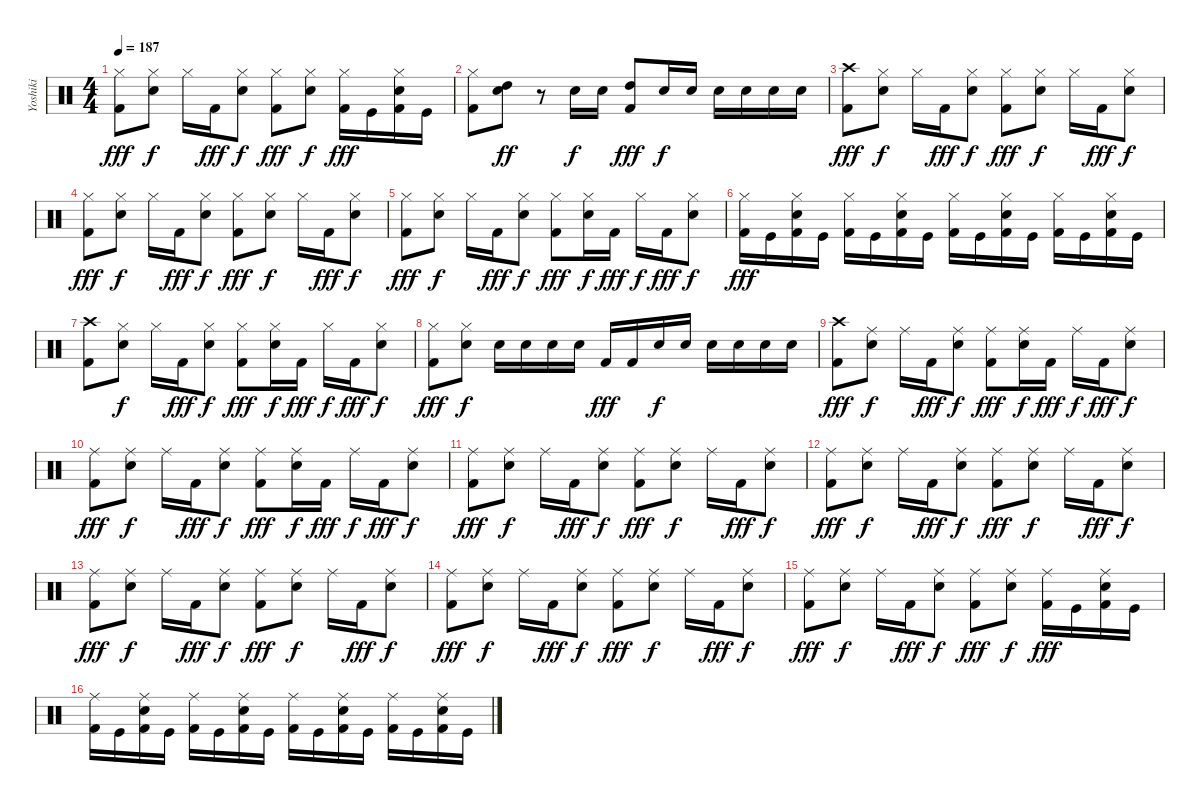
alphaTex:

\track ("Yoshiki" "Yoshiki") {instrument percussion}
\staff {score}
\articulation defaults
\ts (4 4)
\tempo 187
\clef neutral
\ks c
("Hi-Hat (closed)" "Kick (hit) 2").8{dy fff} ("Hi-Hat (closed)" "Electric Snare (hit)").8{dy f} "Hi-Hat (closed)".16 "Kick (hit) 2".16{dy fff} ("Hi-Hat (closed)" "Electric Snare (hit)").8{dy f} ("Hi-Hat (closed)" "Kick (hit) 2").8{dy fff} ("Hi-Hat (closed)" "Electric Snare (hit)").8{dy f} ("Hi-Hat (closed)" "Kick (hit) 2").16{dy fff} "Kick (hit)".16 ("Hi-Hat (closed)" "Electric Snare (hit)" "Kick (hit) 2").16 "Kick (hit)".16 |
("Hi-Hat (closed)" "Kick (hit) 2").8 ("High Tom (hit)" "Electric Snare (hit)").8{dy ff} r.8 "Electric Snare (hit)".16{dy f} "Electric Snare (hit)".16 ("High Tom (hit)" "Kick (hit) 2").8{dy fff} "Electric Snare (hit)".16{dy f} "Electric Snare (hit)".16 "Electric Snare (hit)".16 "Electric Snare (hit)".16 "Electric Snare (hit)".16 "Electric Snare (hit)".16 |
("Crash high (hit)" "Kick (hit) 2").8{dy fff} ("Hi-Hat (closed)" "Electric Snare (hit)").8{dy f} "Hi-Hat (closed)".16 "Kick (hit) 2".16{dy fff} ("Hi-Hat (closed)" "Electric Snare (hit)").8{dy f} ("Hi-Hat (closed)" "Kick (hit) 2").8{dy fff} ("Hi-Hat (closed)" "Electric Snare (hit)").8{dy f} "Hi-Hat (closed)".16 "Kick (hit) 2".16{dy fff} ("Hi-Hat (closed)" "Electric Snare (hit)").8{dy f} |
("Hi-Hat (closed)" "Kick (hit) 2").8{dy fff} ("Hi-Hat (closed)" "Electric Snare (hit)").8{dy f} "Hi-Hat (closed)".16 "Kick (hit) 2".16{dy fff} ("Hi-Hat (closed)" "Electric Snare (hit)").8{dy f} ("Hi-Hat (closed)" "Kick (hit) 2").8{dy fff} ("Hi-Hat (closed)" "Electric Snare (hit)").8{dy f} "Hi-Hat (closed)".16 "Kick (hit) 2".16{dy fff} ("Hi-Hat (closed)" "Electric Snare (hit)").8{dy f} |
("Hi-Hat (closed)" "Kick (hit) 2").8{dy fff} ("Hi-Hat (closed)" "Electric Snare (hit)").8{dy f} "Hi-Hat (closed)".16 "Kick (hit) 2".16{dy fff} ("Hi-Hat (closed)" "Electric Snare (hit)").8{dy f} ("Hi-Hat (closed)" "Kick (hit) 2").8{dy fff} ("Hi-Hat (closed)" "Electric Snare (hit)").16{dy f} "Kick (hit) 2".16{dy fff} "Hi-Hat (closed)".16{dy f} "Kick (hit) 2".16{dy fff} ("Hi-Hat (closed)" "Electric Snare (hit)").8{dy f} |
("Hi-Hat (closed)" "Kick (hit) 2").16{dy fff} "Kick (hit)".16 ("Hi-Hat (closed)" "Electric Snare (hit)" "Kick (hit) 2").16 "Kick (hit)".16 ("Hi-Hat (closed)" "Kick (hit) 2").16 "Kick (hit)".16 ("Hi-Hat (closed)" "Electric Snare (hit)" "Kick (hit) 2").16 "Kick (hit)".16 ("Hi-Hat (closed)" "Kick (hit) 2").16 "Kick (hit)".16 ("Hi-Hat (closed)" "Electric Snare (hit)" "Kick (hit) 2").16 "Kick (hit)".16 ("Hi-Hat (closed)" "Kick (hit) 2").16 "Kick (hit)".16 ("Hi-Hat (closed)" "Electric Snare (hit)" "Kick (hit) 2").16 "Kick (hit)".16 |
("Crash high (hit)" "Kick (hit) 2").8 ("Hi-Hat (closed)" "Electric Snare (hit)").8{dy f} "Hi-Hat (closed)".16 "Kick (hit) 2".16{dy fff} ("Hi-Hat (closed)" "Electric Snare (hit)").8{dy f} ("Hi-Hat (closed)" "Kick (hit) 2").8{dy fff} ("Hi-Hat (closed)" "Electric Snare (hit)").16{dy f} "Kick (hit) 2".16{dy fff} "Hi-Hat (closed)".16{dy f} "Kick (hit) 2".16{dy fff} ("Hi-Hat (closed)" "Electric Snare (hit)").8{dy f} |
("Hi-Hat (closed)" "Kick (hit) 2").8{dy fff} ("Hi-Hat (closed)" "Electric Snare (hit)").8{dy f} "Electric Snare (hit)".16 "Electric Snare (hit)".16 "Electric Snare (hit)".16 "Electric Snare (hit)".16 "Kick (hit) 2".16{dy fff} "Kick (hit) 2".16 "Electric Snare (hit)".16{dy f} "Electric Snare (hit)".16 "Electric Snare (hit)".16 "Electric Snare (hit)".16 "Electric Snare (hit)".16 "Electric Snare (hit)".16 |
("Crash high (hit)" "Kick (hit) 2").8{dy fff} ("Ride (middle)" "Electric Snare (hit)").8{dy f} "Ride (middle)".16 "Kick (hit) 2".16{dy fff} ("Ride (middle)" "Electric Snare (hit)").8{dy f} ("Ride (middle)" "Kick (hit) 2").8{dy fff} ("Ride (middle)" "Electric Snare (hit)").16{dy f} "Kick (hit) 2".16{dy fff} "Ride (middle)".16{dy f} "Kick (hit) 2".16{dy fff} ("Ride (middle)" "Electric Snare (hit)").8{dy f} |
("Ride (middle)" "Kick (hit) 2").8{dy fff} ("Ride (middle)" "Electric Snare (hit)").8{dy f} "Ride (middle)".16 "Kick (hit) 2".16{dy fff} ("Ride (middle)" "Electric Snare (hit)").8{dy f} ("Ride (middle)" "Kick (hit) 2").8{dy fff} ("Ride (middle)" "Electric Snare (hit)").16{dy f} "Kick (hit) 2".16{dy fff} "Ride (middle)".16{dy f} "Kick (hit) 2".16{dy fff} ("Ride (middle)" "Electric Snare (hit)").8{dy f} |
("Ride (middle)" "Kick (hit) 2").8{dy fff} ("Ride (middle)" "Electric Snare (hit)").8{dy f} "Ride (middle)".16 "Kick (hit) 2".16{dy fff} ("Ride (middle)" "Electric Snare (hit)").8{dy f} ("Ride (middle)" "Kick (hit) 2").8{dy fff} ("Ride (middle)" "Electric Snare (hit)").8{dy f} "Ride (middle)".16 "Kick (hit) 2".16{dy fff} ("Ride (middle)" "Electric Snare (hit)").8{dy f} |
("Ride (middle)" "Kick (hit) 2").8{dy fff} ("Ride (middle)" "Electric Snare (hit)").8{dy f} "Ride (middle)".16 "Kick (hit) 2".16{dy fff} ("Ride (middle)" "Electric Snare (hit)").8{dy f} ("Ride (middle)" "Kick (hit) 2").8{dy fff} ("Ride (middle)" "Electric Snare (hit)").8{dy f} "Ride (middle)".16 "Kick (hit) 2".16{dy fff} ("Ride (middle)" "Electric Snare (hit)").8{dy f} |
("Ride (middle)" "Kick (hit) 2").8{dy fff} ("Ride (middle)" "Electric Snare (hit)").8{dy f} "Ride (middle)".16 "Kick (hit) 2".16{dy fff} ("Ride (middle)" "Electric Snare (hit)").8{dy f} ("Ride (middle)" "Kick (hit) 2").8{dy fff} ("Ride (middle)" "Electric Snare (hit)").8{dy f} "Ride (middle)".16 "Kick (hit) 2".16{dy fff} ("Ride (middle)" "Electric Snare (hit)").8{dy f} |
("Ride (middle)" "Kick (hit) 2").8{dy fff} ("Ride (middle)" "Electric Snare (hit)").8{dy f} "Ride (middle)".16 "Kick (hit) 2".16{dy fff} ("Ride (middle)" "Electric Snare (hit)").8{dy f} ("Ride (middle)" "Kick (hit) 2").8{dy fff} ("Ride (middle)" "Electric Snare (hit)").8{dy f} "Ride (middle)".16 "Kick (hit) 2".16{dy fff} ("Ride (middle)" "Electric Snare (hit)").8{dy f} |
("Ride (middle)" "Kick (hit) 2").8{dy fff} ("Ride (middle)" "Electric Snare (hit)").8{dy f} "Ride (middle)".16 "Kick (hit) 2".16{dy fff} ("Ride (middle)" "Electric Snare (hit)").8{dy f} ("Ride (middle)" "Kick (hit) 2").8{dy fff} ("Ride (middle)" "Electric Snare (hit)").8{dy f} ("Ride (middle)" "Kick (hit) 2").16{dy fff} "Kick (hit)".16 ("Ride (middle)" "Electric Snare (hit)" "Kick (hit) 2").16 "Kick (hit)".16 |
("Ride (middle)" "Kick (hit) 2").16 "Kick (hit)".16 ("Ride (middle)" "Electric Snare (hit)" "Kick (hit) 2").16 "Kick (hit)".16 ("Ride (middle)" "Kick (hit) 2").16 "Kick (hit)".16 ("Ride (middle)" "Electric Snare (hit)" "Kick (hit) 2").16 "Kick (hit)".16 ("Ride (middle)" "Kick (hit) 2").16 "Kick (hit)".16 ("Ride (middle)" "Electric Snare (hit)" "Kick (hit) 2").16 "Kick (hit)".16 ("Ride (middle)" "Kick (hit) 2").16 "Kick (hit)".16 ("Ride (middle)" "Electric Snare (hit)" "Kick (hit) 2").16 "Kick (hit)".16
